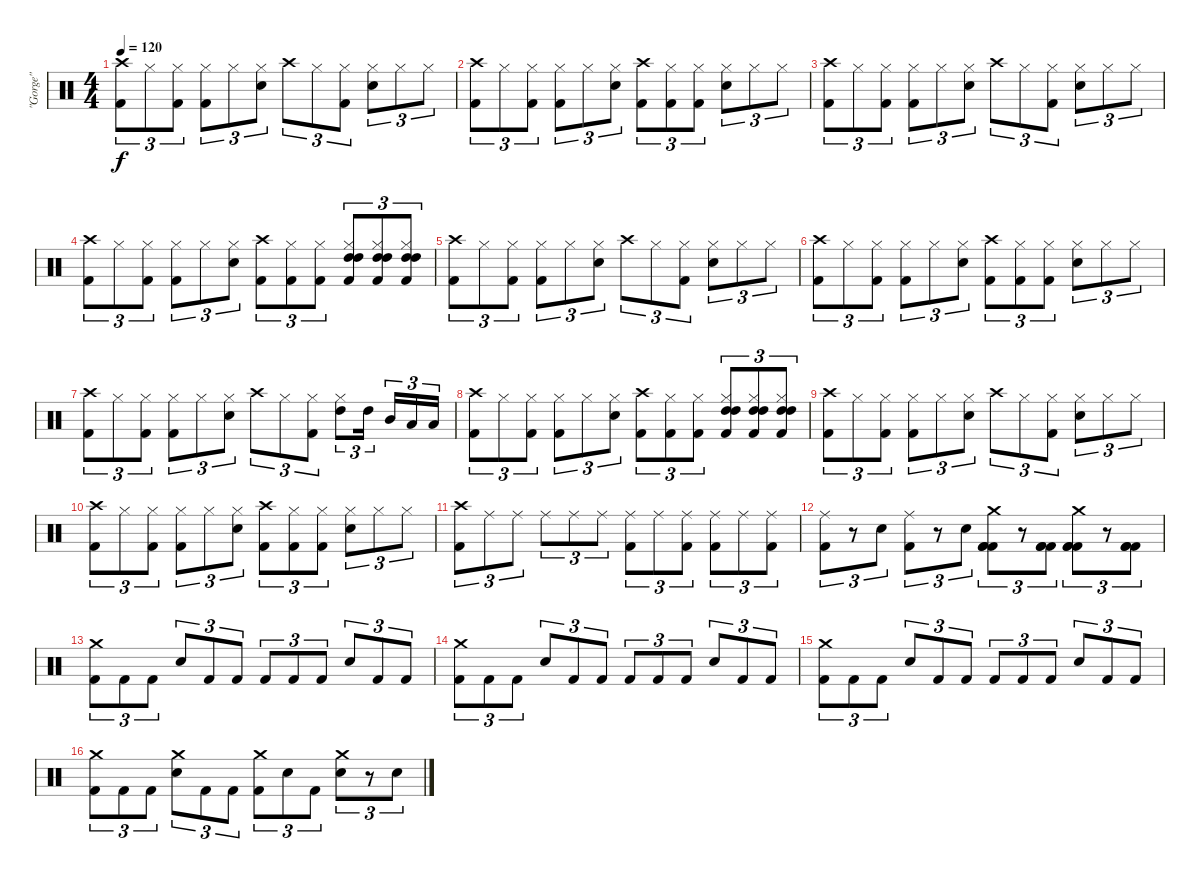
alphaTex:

\track ("\"Gorge\"" "\"Gorge\"") {instrument percussion}
\staff {score}
\articulation defaults
\ts (4 4)
\tempo 120
\clef neutral
\ks c
("Crash high (hit)" "Kick (hit) 2").8{tu (3 2) dy f} "Hi-Hat (closed)".8{tu (3 2)} ("Hi-Hat (closed)" "Kick (hit) 2").8{tu (3 2)} ("Hi-Hat (closed)" "Kick (hit) 2").8{tu (3 2)} "Hi-Hat (closed)".8{tu (3 2)} ("Hi-Hat (closed)" "Electric Snare (hit)").8{tu (3 2)} "Crash high (hit)".8{tu (3 2)} "Hi-Hat (closed)".8{tu (3 2)} ("Hi-Hat (closed)" "Kick (hit) 2").8{tu (3 2)} ("Hi-Hat (closed)" "Electric Snare (hit)").8{tu (3 2)} "Hi-Hat (closed)".8{tu (3 2)} "Hi-Hat (closed)".8{tu (3 2)} |
("Crash high (hit)" "Kick (hit) 2").8{tu (3 2)} "Hi-Hat (closed)".8{tu (3 2)} ("Hi-Hat (closed)" "Kick (hit) 2").8{tu (3 2)} ("Hi-Hat (closed)" "Kick (hit) 2").8{tu (3 2)} "Hi-Hat (closed)".8{tu (3 2)} ("Hi-Hat (closed)" "Electric Snare (hit)").8{tu (3 2)} ("Crash high (hit)" "Kick (hit) 2").8{tu (3 2)} ("Hi-Hat (closed)" "Kick (hit) 2").8{tu (3 2)} ("Hi-Hat (closed)" "Kick (hit) 2").8{tu (3 2)} ("Hi-Hat (closed)" "Electric Snare (hit)").8{tu (3 2)} "Hi-Hat (closed)".8{tu (3 2)} "Hi-Hat (closed)".8{tu (3 2)} |
("Crash high (hit)" "Kick (hit) 2").8{tu (3 2)} "Hi-Hat (closed)".8{tu (3 2)} ("Hi-Hat (closed)" "Kick (hit) 2").8{tu (3 2)} ("Hi-Hat (closed)" "Kick (hit) 2").8{tu (3 2)} "Hi-Hat (closed)".8{tu (3 2)} ("Hi-Hat (closed)" "Electric Snare (hit)").8{tu (3 2)} "Crash high (hit)".8{tu (3 2)} "Hi-Hat (closed)".8{tu (3 2)} ("Hi-Hat (closed)" "Kick (hit) 2").8{tu (3 2)} ("Hi-Hat (closed)" "Electric Snare (hit)").8{tu (3 2)} "Hi-Hat (closed)".8{tu (3 2)} "Hi-Hat (closed)".8{tu (3 2)} |
("Crash high (hit)" "Kick (hit) 2").8{tu (3 2)} "Hi-Hat (closed)".8{tu (3 2)} ("Hi-Hat (closed)" "Kick (hit) 2").8{tu (3 2)} ("Hi-Hat (closed)" "Kick (hit) 2").8{tu (3 2)} "Hi-Hat (closed)".8{tu (3 2)} ("Hi-Hat (closed)" "Electric Snare (hit)").8{tu (3 2)} ("Crash high (hit)" "Kick (hit) 2").8{tu (3 2)} ("Hi-Hat (closed)" "Kick (hit) 2").8{tu (3 2)} ("Hi-Hat (closed)" "Kick (hit) 2").8{tu (3 2)} ("Hi-Hat (closed)" "High Tom (hit)" "High Tom (hit)" "Kick (hit) 2").8{tu (3 2)} ("Hi-Hat (closed)" "High Tom (hit)" "High Tom (hit)" "Kick (hit) 2").8{tu (3 2)} ("Hi-Hat (closed)" "High Tom (hit)" "High Tom (hit)" "Kick (hit) 2").8{tu (3 2)} |
("Crash high (hit)" "Kick (hit) 2").8{tu (3 2)} "Hi-Hat (closed)".8{tu (3 2)} ("Hi-Hat (closed)" "Kick (hit) 2").8{tu (3 2)} ("Hi-Hat (closed)" "Kick (hit) 2").8{tu (3 2)} "Hi-Hat (closed)".8{tu (3 2)} ("Hi-Hat (closed)" "Electric Snare (hit)").8{tu (3 2)} "Crash high (hit)".8{tu (3 2)} "Hi-Hat (closed)".8{tu (3 2)} ("Hi-Hat (closed)" "Kick (hit) 2").8{tu (3 2)} ("Hi-Hat (closed)" "Electric Snare (hit)").8{tu (3 2)} "Hi-Hat (closed)".8{tu (3 2)} "Hi-Hat (closed)".8{tu (3 2)} |
("Crash high (hit)" "Kick (hit) 2").8{tu (3 2)} "Hi-Hat (closed)".8{tu (3 2)} ("Hi-Hat (closed)" "Kick (hit) 2").8{tu (3 2)} ("Hi-Hat (closed)" "Kick (hit) 2").8{tu (3 2)} "Hi-Hat (closed)".8{tu (3 2)} ("Hi-Hat (closed)" "Electric Snare (hit)").8{tu (3 2)} ("Crash high (hit)" "Kick (hit) 2").8{tu (3 2)} ("Hi-Hat (closed)" "Kick (hit) 2").8{tu (3 2)} ("Hi-Hat (closed)" "Kick (hit) 2").8{tu (3 2)} ("Hi-Hat (closed)" "Electric Snare (hit)").8{tu (3 2)} "Hi-Hat (closed)".8{tu (3 2)} "Hi-Hat (closed)".8{tu (3 2)} |
("Crash high (hit)" "Kick (hit) 2").8{tu (3 2)} "Hi-Hat (closed)".8{tu (3 2)} ("Hi-Hat (closed)" "Kick (hit) 2").8{tu (3 2)} ("Hi-Hat (closed)" "Kick (hit) 2").8{tu (3 2)} "Hi-Hat (closed)".8{tu (3 2)} ("Hi-Hat (closed)" "Electric Snare (hit)").8{tu (3 2)} "Crash high (hit)".8{tu (3 2)} "Hi-Hat (closed)".8{tu (3 2)} ("Hi-Hat (closed)" "Kick (hit) 2").8{tu (3 2)} ("Hi-Hat (closed)" "High Tom (hit)").8{tu (3 2)} "High Tom (hit)".16{tu (3 2)} "Mid Tom (hit)".16{tu (3 2)} "Low Tom (hit)".16{tu (3 2)} "Low Tom (hit)".16{tu (3 2)} |
("Crash high (hit)" "Kick (hit) 2").8{tu (3 2)} "Hi-Hat (closed)".8{tu (3 2)} ("Hi-Hat (closed)" "Kick (hit) 2").8{tu (3 2)} ("Hi-Hat (closed)" "Kick (hit) 2").8{tu (3 2)} "Hi-Hat (closed)".8{tu (3 2)} ("Hi-Hat (closed)" "Electric Snare (hit)").8{tu (3 2)} ("Crash high (hit)" "Kick (hit) 2").8{tu (3 2)} ("Hi-Hat (closed)" "Kick (hit) 2").8{tu (3 2)} ("Hi-Hat (closed)" "Kick (hit) 2").8{tu (3 2)} ("Hi-Hat (closed)" "High Tom (hit)" "High Tom (hit)" "Kick (hit) 2").8{tu (3 2)} ("Hi-Hat (closed)" "High Tom (hit)" "High Tom (hit)" "Kick (hit) 2").8{tu (3 2)} ("Hi-Hat (closed)" "High Tom (hit)" "High Tom (hit)" "Kick (hit) 2").8{tu (3 2)} |
("Crash high (hit)" "Kick (hit) 2").8{tu (3 2)} "Hi-Hat (closed)".8{tu (3 2)} ("Hi-Hat (closed)" "Kick (hit) 2").8{tu (3 2)} ("Hi-Hat (closed)" "Kick (hit) 2").8{tu (3 2)} "Hi-Hat (closed)".8{tu (3 2)} ("Hi-Hat (closed)" "Electric Snare (hit)").8{tu (3 2)} "Crash high (hit)".8{tu (3 2)} "Hi-Hat (closed)".8{tu (3 2)} ("Hi-Hat (closed)" "Kick (hit) 2").8{tu (3 2)} ("Hi-Hat (closed)" "Electric Snare (hit)").8{tu (3 2)} "Hi-Hat (closed)".8{tu (3 2)} "Hi-Hat (closed)".8{tu (3 2)} |
("Crash high (hit)" "Kick (hit) 2").8{tu (3 2)} "Hi-Hat (closed)".8{tu (3 2)} ("Hi-Hat (closed)" "Kick (hit) 2").8{tu (3 2)} ("Hi-Hat (closed)" "Kick (hit) 2").8{tu (3 2)} "Hi-Hat (closed)".8{tu (3 2)} ("Hi-Hat (closed)" "Electric Snare (hit)").8{tu (3 2)} ("Crash high (hit)" "Kick (hit) 2").8{tu (3 2)} ("Hi-Hat (closed)" "Kick (hit) 2").8{tu (3 2)} ("Hi-Hat (closed)" "Kick (hit) 2").8{tu (3 2)} ("Hi-Hat (closed)" "Electric Snare (hit)").8{tu (3 2)} "Hi-Hat (closed)".8{tu (3 2)} "Hi-Hat (closed)".8{tu (3 2)} |
("Crash high (hit)" "Kick (hit) 2").8{tu (3 2)} "Ride (middle)".8{tu (3 2)} "Ride (middle)".8{tu (3 2)} "Ride (middle)".8{tu (3 2)} "Ride (middle)".8{tu (3 2)} "Ride (middle)".8{tu (3 2)} ("Ride (middle)" "Kick (hit) 2").8{tu (3 2)} "Ride (middle)".8{tu (3 2)} ("Ride (middle)" "Kick (hit) 2").8{tu (3 2)} ("Ride (middle)" "Kick (hit) 2").8{tu (3 2)} "Ride (middle)".8{tu (3 2)} ("Ride (middle)" "Kick (hit) 2").8{tu (3 2)} |
("Ride (middle)" "Kick (hit) 2").8{tu (3 2)} r.8{tu (3 2)} "Electric Snare (hit)".8{tu (3 2)} ("Ride (middle)" "Kick (hit) 2").8{tu (3 2)} r.8{tu (3 2)} "Electric Snare (hit)".8{tu (3 2)} ("Crash medium (hit)" "Kick (hit) 2" "Kick (hit) 2" "Kick (hit) 2").8{tu (3 2)} r.8{tu (3 2)} ("Kick (hit) 2" "Kick (hit) 2" "Kick (hit) 2").8{tu (3 2)} ("Crash medium (hit)" "Kick (hit) 2" "Kick (hit) 2" "Kick (hit) 2").8{tu (3 2)} r.8{tu (3 2)} ("Kick (hit) 2" "Kick (hit) 2" "Kick (hit) 2").8{tu (3 2)} |
("Crash medium (hit)" "Kick (hit) 2").8{tu (3 2)} "Kick (hit) 2".8{tu (3 2)} "Kick (hit) 2".8{tu (3 2)} "Electric Snare (hit)".8{tu (3 2)} "Kick (hit) 2".8{tu (3 2)} "Kick (hit) 2".8{tu (3 2)} "Kick (hit) 2".8{tu (3 2)} "Kick (hit) 2".8{tu (3 2)} "Kick (hit) 2".8{tu (3 2)} "Electric Snare (hit)".8{tu (3 2)} "Kick (hit) 2".8{tu (3 2)} "Kick (hit) 2".8{tu (3 2)} |
("Crash medium (hit)" "Kick (hit) 2").8{tu (3 2)} "Kick (hit) 2".8{tu (3 2)} "Kick (hit) 2".8{tu (3 2)} "Electric Snare (hit)".8{tu (3 2)} "Kick (hit) 2".8{tu (3 2)} "Kick (hit) 2".8{tu (3 2)} "Kick (hit) 2".8{tu (3 2)} "Kick (hit) 2".8{tu (3 2)} "Kick (hit) 2".8{tu (3 2)} "Electric Snare (hit)".8{tu (3 2)} "Kick (hit) 2".8{tu (3 2)} "Kick (hit) 2".8{tu (3 2)} |
("Crash medium (hit)" "Kick (hit) 2").8{tu (3 2)} "Kick (hit) 2".8{tu (3 2)} "Kick (hit) 2".8{tu (3 2)} "Electric Snare (hit)".8{tu (3 2)} "Kick (hit) 2".8{tu (3 2)} "Kick (hit) 2".8{tu (3 2)} "Kick (hit) 2".8{tu (3 2)} "Kick (hit) 2".8{tu (3 2)} "Kick (hit) 2".8{tu (3 2)} "Electric Snare (hit)".8{tu (3 2)} "Kick (hit) 2".8{tu (3 2)} "Kick (hit) 2".8{tu (3 2)} |
("Crash medium (hit)" "Kick (hit) 2").8{tu (3 2)} "Kick (hit) 2".8{tu (3 2)} "Kick (hit) 2".8{tu (3 2)} ("Crash medium (hit)" "Electric Snare (hit)").8{tu (3 2)} "Kick (hit) 2".8{tu (3 2)} "Kick (hit) 2".8{tu (3 2)} ("Crash medium (hit)" "Kick (hit) 2").8{tu (3 2)} "Electric Snare (hit)".8{tu (3 2)} "Kick (hit) 2".8{tu (3 2)} ("Crash medium (hit)" "Electric Snare (hit)").8{tu (3 2)} r.8{tu (3 2)} "Electric Snare (hit)".8{tu (3 2)}
